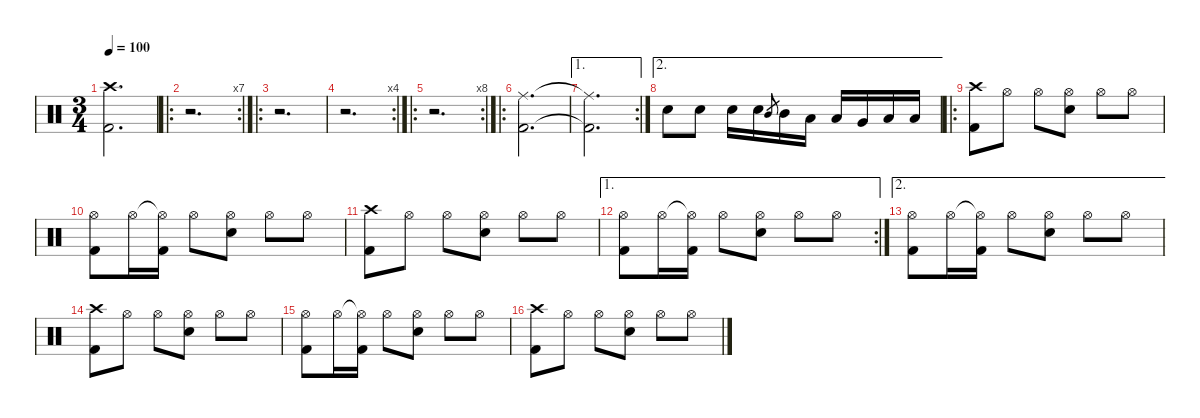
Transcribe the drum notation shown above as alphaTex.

\defaultSystemsLayout 4
\hideDynamics
\bracketExtendMode nobrackets
\singleTrackTrackNamePolicy hidden
\multiTrackTrackNamePolicy hidden
\firstSystemTrackNameMode fullname
\firstSystemTrackNameOrientation horizontal
\otherSystemsTrackNameOrientation horizontal
\track ("Drums" "drm.") {instrument percussion}
\staff {score}
\articulation defaults
\ts (3 4)
\tempo 100
\clef neutral
\ks c
("Crash high (hit)" "Kick (hit) 2").2{d dy f beam Down} |
\ro
\rc 7
r.2{d beam Down} |
\ro
r.2{d beam Down} |
\rc 4
r.2{d beam Down} |
\ro
\rc 8
r.2{d beam Down} |
\ro
("Ride (middle)" "Kick (hit) 2").2{d dy ff beam Down} |
\ae 1
\rc 2
("Ride (middle)"{t} "Kick (hit) 2"{t}).2{d dy f beam Down} |
\ae 2 "Snare (hit) 2".8{beam Down} "Snare (hit) 2".8{beam Down} "Snare (hit) 2".16{beam Down} "Snare (hit) 2".16{beam Down} "Mid Tom (hit)".8{gr dy mf beam Up} "Mid Tom (hit)".16{dy f beam Down} "Low Tom (hit)".16{beam Down} "Low Tom (hit)".16{beam Up} "Very Low Tom (hit)".16{beam Up} "Low Floor Tom (hit)".16{beam Up} "Low Floor Tom (hit)".16{beam Up}
|
\ro
("Crash high (hit)" "Kick (hit) 2").8{beam Down} "Hi-Hat (open)".8{beam Down} "Hi-Hat (open)".8{beam Down} ("Hi-Hat (open)" "Snare (hit) 2").8{beam Down} "Hi-Hat (open)".8{beam Down} "Hi-Hat (open)".8{beam Down} |
("Hi-Hat (open)" "Kick (hit) 2").8{beam Down} "Hi-Hat (open)".16{beam Down} ("Hi-Hat (open)"{t} "Kick (hit) 2").16{beam Down} "Hi-Hat (open)".8{beam Down} ("Hi-Hat (open)" "Snare (hit) 2").8{beam Down} "Hi-Hat (open)".8{beam Down} "Hi-Hat (open)".8{beam Down} |
("Crash high (hit)" "Kick (hit) 2").8{beam Down} "Hi-Hat (open)".8{beam Down} "Hi-Hat (open)".8{beam Down} ("Hi-Hat (open)" "Snare (hit) 2").8{beam Down} "Hi-Hat (open)".8{beam Down} "Hi-Hat (open)".8{beam Down} |
\ae 1
\rc 2
("Hi-Hat (open)" "Kick (hit) 2").8{beam Down} "Hi-Hat (open)".16{beam Down} ("Hi-Hat (open)"{t} "Kick (hit) 2").16{beam Down} "Hi-Hat (open)".8{beam Down} ("Hi-Hat (open)" "Snare (hit) 2").8{beam Down} "Hi-Hat (open)".8{beam Down} "Hi-Hat (open)".8{beam Down} |
\ae 2
("Hi-Hat (open)" "Kick (hit) 2").8{beam Down} "Hi-Hat (open)".16{beam Down} ("Hi-Hat (open)"{t} "Kick (hit) 2").16{beam Down} "Hi-Hat (open)".8{beam Down} ("Hi-Hat (open)" "Snare (hit) 2").8{beam Down} "Hi-Hat (open)".8{beam Down} "Hi-Hat (open)".8{beam Down} |
("Crash high (hit)" "Kick (hit) 2").8{beam Down} "Hi-Hat (open)".8{beam Down} "Hi-Hat (open)".8{beam Down} ("Hi-Hat (open)" "Snare (hit) 2").8{beam Down} "Hi-Hat (open)".8{beam Down} "Hi-Hat (open)".8{beam Down} |
("Hi-Hat (open)" "Kick (hit) 2").8{beam Down} "Hi-Hat (open)".16{beam Down} ("Hi-Hat (open)"{t} "Kick (hit) 2").16{beam Down} "Hi-Hat (open)".8{beam Down} ("Hi-Hat (open)" "Snare (hit) 2").8{beam Down} "Hi-Hat (open)".8{beam Down} "Hi-Hat (open)".8{beam Down} |
("Crash high (hit)" "Kick (hit) 2").8{beam Down} "Hi-Hat (open)".8{beam Down} "Hi-Hat (open)".8{beam Down} ("Hi-Hat (open)" "Snare (hit) 2").8{beam Down} "Hi-Hat (open)".8{beam Down} "Hi-Hat (open)".8{beam Down}
